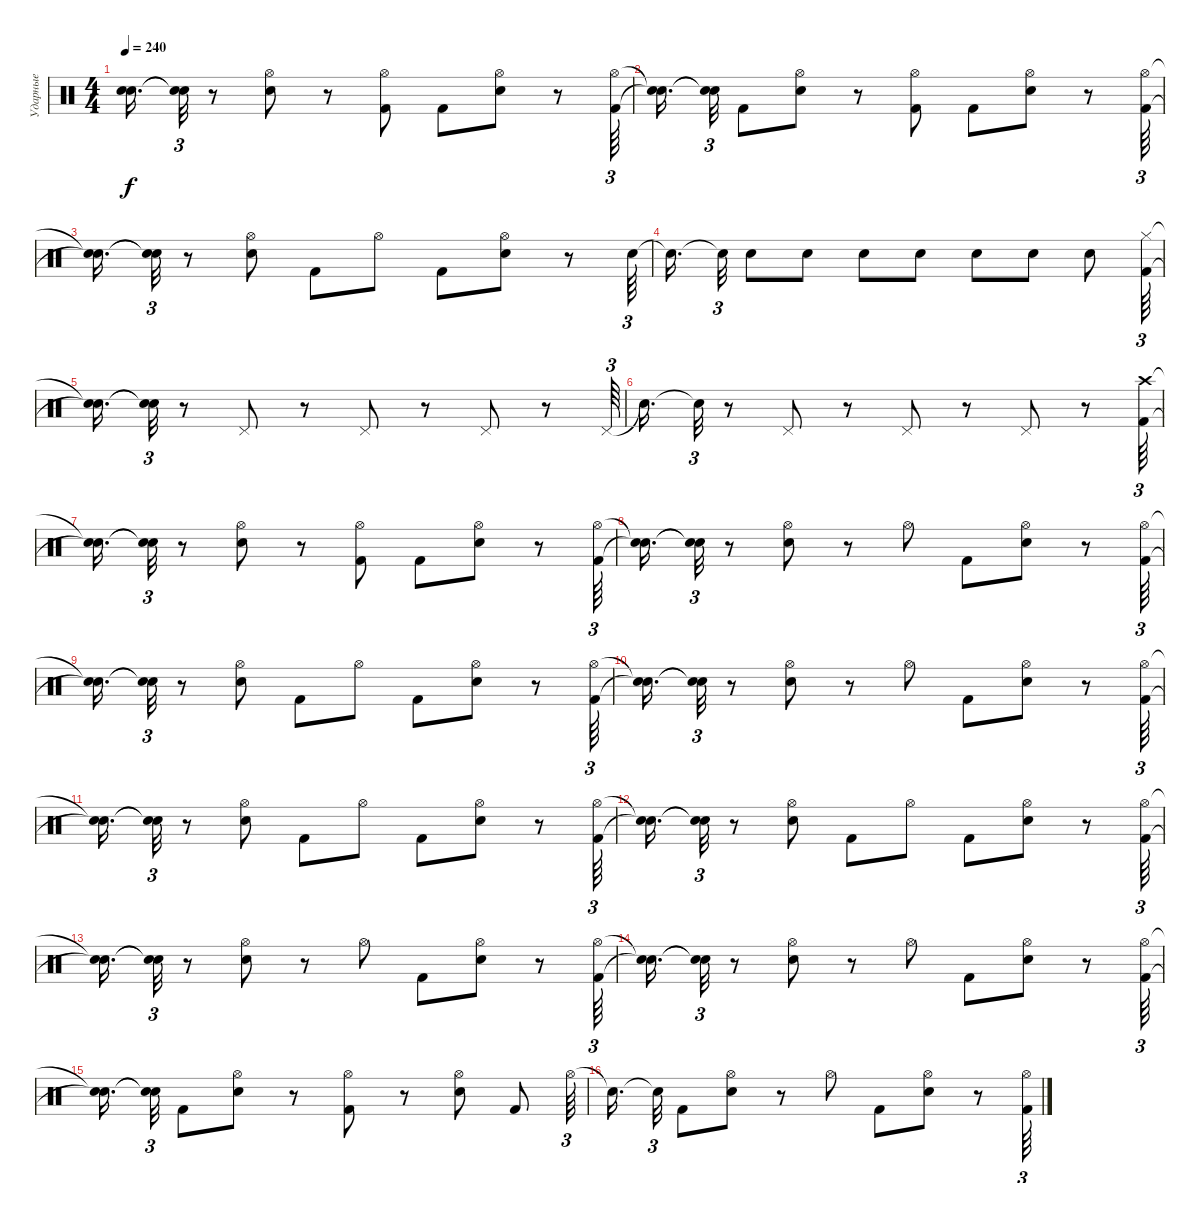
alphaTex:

\track ("Ударные" "Ударные") {instrument percussion}
\staff {score}
\articulation defaults
\ts (4 4)
\tempo 240
\clef neutral
\ks c
("Snare (hit)"{t} "Snare (hit)"{t}).16{d dy f} ("Snare (hit)"{t} "Snare (hit)"{t}).32{tu (3 2)} r.8 ("Snare (hit) 2" "Hi-Hat (open)").8 r.8 ("Hi-Hat (open)" "Kick (hit) 2").8 "Kick (hit) 2".8 ("Snare (hit) 2" "Hi-Hat (open)").8 r.8 ("Hi-Hat (open)" "Kick (hit) 2").64{tu (3 2)} |
("Snare (hit)"{t} "Snare (hit)"{t}).16{d} ("Snare (hit)"{t} "Snare (hit)"{t}).32{tu (3 2)} "Kick (hit) 2".8 ("Snare (hit) 2" "Hi-Hat (open)").8 r.8 ("Kick (hit) 2" "Hi-Hat (open)").8 "Kick (hit) 2".8 ("Snare (hit) 2" "Hi-Hat (open)").8 r.8 ("Hi-Hat (open)" "Kick (hit) 2").64{tu (3 2)} |
("Snare (hit)"{t} "Snare (hit)"{t}).16{d} ("Snare (hit)"{t} "Snare (hit)"{t}).32{tu (3 2)} r.8 ("Hi-Hat (open)" "Snare (hit) 2").8 "Kick (hit) 2".8 "Hi-Hat (open)".8 "Kick (hit) 2".8 ("Snare (hit) 2" "Hi-Hat (open)").8 r.8 "Snare (hit) 2".64{tu (3 2)} |
"Snare (hit)"{t}.16{d} "Snare (hit)"{t}.32{tu (3 2)} "Snare (hit) 2".8 "Snare (hit) 2".8 "Snare (hit) 2".8 "Snare (hit) 2".8 "Snare (hit) 2".8 "Snare (hit) 2".8 "Snare (hit) 2".8 ("Kick (hit) 2" "Hi-Hat (closed)").64{tu (3 2)} |
("Snare (hit)"{t} "Snare (hit)"{t}).16{d} ("Snare (hit)"{t} "Snare (hit)"{t}).32{tu (3 2)} r.8 "Pedal Hi-Hat (hit)".8 r.8 "Pedal Hi-Hat (hit)".8 r.8 "Pedal Hi-Hat (hit)".8 r.8 "Pedal Hi-Hat (hit)".64{tu (3 2)} |
"Snare (hit)"{t}.16{d} "Snare (hit)"{t}.32{tu (3 2)} r.8 "Pedal Hi-Hat (hit)".8 r.8 "Pedal Hi-Hat (hit)".8 r.8 "Pedal Hi-Hat (hit)".8 r.8 ("Kick (hit) 2" "Crash high (hit)").64{tu (3 2)} |
("Snare (hit)"{t} "Snare (hit)"{t}).16{d} ("Snare (hit)"{t} "Snare (hit)"{t}).32{tu (3 2)} r.8 ("Hi-Hat (open)" "Snare (hit) 2").8 r.8 ("Hi-Hat (open)" "Kick (hit) 2").8 "Kick (hit) 2".8 ("Snare (hit) 2" "Hi-Hat (open)").8 r.8 ("Hi-Hat (open)" "Kick (hit) 2").64{tu (3 2)} |
("Snare (hit)"{t} "Snare (hit)"{t}).16{d} ("Snare (hit)"{t} "Snare (hit)"{t}).32{tu (3 2)} r.8 ("Hi-Hat (open)" "Snare (hit) 2").8 r.8 "Hi-Hat (open)".8 "Kick (hit) 2".8 ("Hi-Hat (open)" "Snare (hit) 2").8 r.8 ("Kick (hit) 2" "Hi-Hat (open)").64{tu (3 2)} |
("Snare (hit)"{t} "Snare (hit)"{t}).16{d} ("Snare (hit)"{t} "Snare (hit)"{t}).32{tu (3 2)} r.8 ("Snare (hit) 2" "Hi-Hat (open)").8 "Kick (hit) 2".8 "Hi-Hat (open)".8 "Kick (hit) 2".8 ("Hi-Hat (open)" "Snare (hit) 2").8 r.8 ("Kick (hit) 2" "Hi-Hat (open)").64{tu (3 2)} |
("Snare (hit)"{t} "Snare (hit)"{t}).16{d} ("Snare (hit)"{t} "Snare (hit)"{t}).32{tu (3 2)} r.8 ("Hi-Hat (open)" "Snare (hit) 2").8 r.8 "Hi-Hat (open)".8 "Kick (hit) 2".8 ("Snare (hit) 2" "Hi-Hat (open)").8 r.8 ("Kick (hit) 2" "Hi-Hat (open)").64{tu (3 2)} |
("Snare (hit)"{t} "Snare (hit)"{t}).16{d} ("Snare (hit)"{t} "Snare (hit)"{t}).32{tu (3 2)} r.8 ("Snare (hit) 2" "Hi-Hat (open)").8 "Kick (hit) 2".8 "Hi-Hat (open)".8 "Kick (hit) 2".8 ("Snare (hit) 2" "Hi-Hat (open)").8 r.8 ("Kick (hit) 2" "Hi-Hat (open)").64{tu (3 2)} |
("Snare (hit)"{t} "Snare (hit)"{t}).16{d} ("Snare (hit)"{t} "Snare (hit)"{t}).32{tu (3 2)} r.8 ("Snare (hit) 2" "Hi-Hat (open)").8 "Kick (hit) 2".8 "Hi-Hat (open)".8 "Kick (hit) 2".8 ("Snare (hit) 2" "Hi-Hat (open)").8 r.8 ("Hi-Hat (open)" "Kick (hit) 2").64{tu (3 2)} |
("Snare (hit)"{t} "Snare (hit)"{t}).16{d} ("Snare (hit)"{t} "Snare (hit)"{t}).32{tu (3 2)} r.8 ("Snare (hit) 2" "Hi-Hat (open)").8 r.8 "Hi-Hat (open)".8 "Kick (hit) 2".8 ("Hi-Hat (open)" "Snare (hit) 2").8 r.8 ("Hi-Hat (open)" "Kick (hit) 2").64{tu (3 2)} |
("Snare (hit)"{t} "Snare (hit)"{t}).16{d} ("Snare (hit)"{t} "Snare (hit)"{t}).32{tu (3 2)} r.8 ("Snare (hit) 2" "Hi-Hat (open)").8 r.8 "Hi-Hat (open)".8 "Kick (hit) 2".8 ("Snare (hit) 2" "Hi-Hat (open)").8 r.8 ("Kick (hit) 2" "Hi-Hat (open)").64{tu (3 2)} |
("Snare (hit)"{t} "Snare (hit)"{t}).16{d} ("Snare (hit)"{t} "Snare (hit)"{t}).32{tu (3 2)} "Kick (hit) 2".8 ("Snare (hit) 2" "Hi-Hat (open)").8 r.8 ("Kick (hit) 2" "Hi-Hat (open)").8 r.8 ("Hi-Hat (open)" "Snare (hit) 2").8 "Kick (hit) 2".8 "Hi-Hat (open)".64{tu (3 2)} |
"Snare (hit)"{t}.16{d} "Snare (hit)"{t}.32{tu (3 2)} "Kick (hit) 2".8 ("Snare (hit) 2" "Hi-Hat (open)").8 r.8 "Hi-Hat (open)".8 "Kick (hit) 2".8 ("Snare (hit) 2" "Hi-Hat (open)").8 r.8 ("Kick (hit) 2" "Hi-Hat (open)").64{tu (3 2)}
